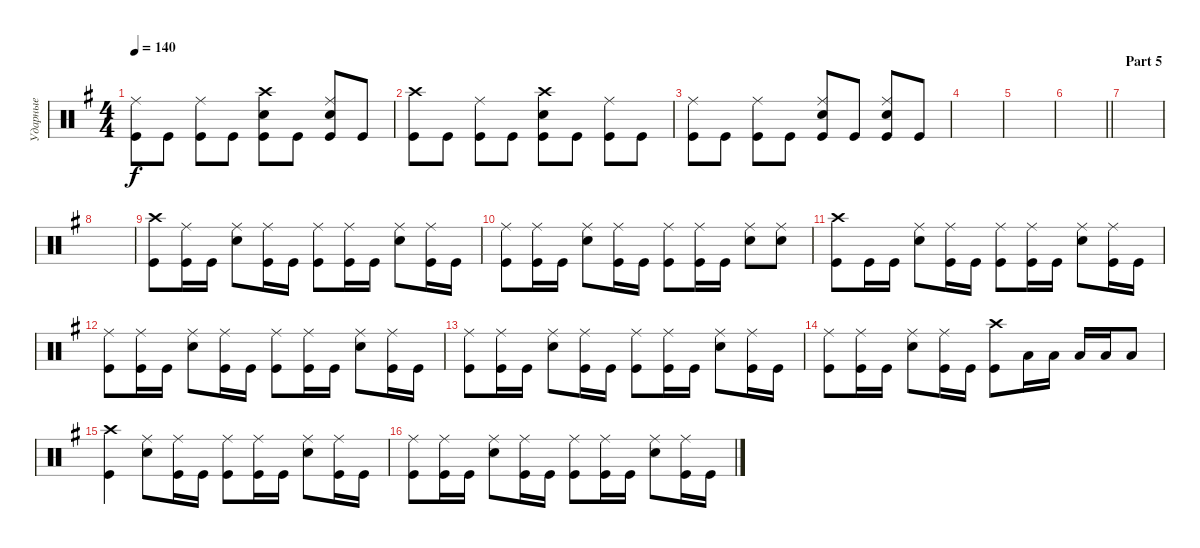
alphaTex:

\track ("Ударные" "Ударные") {instrument percussion}
\staff {score}
\articulation defaults
\ts (4 4)
\tempo 140
\clef neutral
\ks eminor
("Kick (hit)" "Ride (middle)").8{dy f} "Kick (hit)".8 ("Kick (hit)" "Ride (middle)").8 "Kick (hit)".8 ("Kick (hit)" "Snare (hit) 2" "Crash high (hit)").8 "Kick (hit)".8 ("Kick (hit)" "Ride (middle)" "Snare (hit) 2").8 "Kick (hit)".8 |
("Kick (hit)" "Crash high (hit)").8 "Kick (hit)".8 ("Kick (hit)" "Ride (middle)").8 "Kick (hit)".8 ("Kick (hit)" "Snare (hit) 2" "Crash high (hit)").8 "Kick (hit)".8 ("Kick (hit)" "Ride (middle)").8 "Kick (hit)".8 |
("Kick (hit)" "Ride (middle)").8 "Kick (hit)".8 ("Kick (hit)" "Ride (middle)").8 "Kick (hit)".8 ("Kick (hit)" "Snare (hit) 2" "Ride (middle)").8 "Kick (hit)".8 ("Kick (hit)" "Ride (middle)" "Snare (hit) 2").8 "Kick (hit)".8 |
|
|
\barLineRight lightlight
|
\section ("" "Part 5")
|
|
("Kick (hit)" "Crash high (hit)").8 ("Kick (hit)" "Ride (middle)").16 "Kick (hit)".16 ("Snare (hit) 2" "Ride (middle)").8 ("Kick (hit)" "Ride (middle)").16 "Kick (hit)".16 ("Kick (hit)" "Ride (middle)").8 ("Kick (hit)" "Ride (middle)").16 "Kick (hit)".16 ("Snare (hit) 2" "Ride (middle)").8 ("Kick (hit)" "Ride (middle)").16 "Kick (hit)".16 |
("Kick (hit)" "Ride (middle)").8 ("Kick (hit)" "Ride (middle)").16 "Kick (hit)".16 ("Snare (hit) 2" "Ride (middle)").8 ("Kick (hit)" "Ride (middle)").16 "Kick (hit)".16 ("Kick (hit)" "Ride (middle)").8 ("Kick (hit)" "Ride (middle)").16 "Kick (hit)".16 ("Snare (hit) 2" "Ride (middle)").8 ("Snare (hit) 2" "Ride (middle)").8 |
("Kick (hit)" "Crash high (hit)").8 "Kick (hit)".16 "Kick (hit)".16 ("Snare (hit) 2" "Ride (middle)").8 ("Kick (hit)" "Ride (middle)").16 "Kick (hit)".16 ("Kick (hit)" "Ride (middle)").8 ("Kick (hit)" "Ride (middle)").16 "Kick (hit)".16 ("Snare (hit) 2" "Ride (middle)").8 ("Kick (hit)" "Ride (middle)").16 "Kick (hit)".16 |
("Kick (hit)" "Ride (middle)").8 ("Kick (hit)" "Ride (middle)").16 "Kick (hit)".16 ("Snare (hit) 2" "Ride (middle)").8 ("Kick (hit)" "Ride (middle)").16 "Kick (hit)".16 ("Kick (hit)" "Ride (middle)").8 ("Kick (hit)" "Ride (middle)").16 "Kick (hit)".16 ("Snare (hit) 2" "Ride (middle)").8 ("Kick (hit)" "Ride (middle)").16 "Kick (hit)".16 |
("Kick (hit)" "Ride (middle)").8 ("Kick (hit)" "Ride (middle)").16 "Kick (hit)".16 ("Snare (hit) 2" "Ride (middle)").8 ("Kick (hit)" "Ride (middle)").16 "Kick (hit)".16 ("Kick (hit)" "Ride (middle)").8 ("Kick (hit)" "Ride (middle)").16 "Kick (hit)".16 ("Snare (hit) 2" "Ride (middle)").8 ("Kick (hit)" "Ride (middle)").16 "Kick (hit)".16 |
("Kick (hit)" "Ride (middle)").8 ("Kick (hit)" "Ride (middle)").16 "Kick (hit)".16 ("Snare (hit) 2" "Ride (middle)").8 ("Kick (hit)" "Ride (middle)").16 "Kick (hit)".16 ("Kick (hit)" "Crash high (hit)").8 "Low Tom (hit)".16 "Low Tom (hit)".16 "Low Tom (hit)".16 "Low Tom (hit)".16 "Low Tom (hit)".8 |
("Kick (hit)" "Crash high (hit)").4 ("Snare (hit) 2" "Ride (middle)").8 ("Kick (hit)" "Ride (middle)").16 "Kick (hit)".16 ("Kick (hit)" "Ride (middle)").8 ("Kick (hit)" "Ride (middle)").16 "Kick (hit)".16 ("Snare (hit) 2" "Ride (middle)").8 ("Kick (hit)" "Ride (middle)").16 "Kick (hit)".16 |
("Kick (hit)" "Ride (middle)").8 ("Kick (hit)" "Ride (middle)").16 "Kick (hit)".16 ("Snare (hit) 2" "Ride (middle)").8 ("Kick (hit)" "Ride (middle)").16 "Kick (hit)".16 ("Kick (hit)" "Ride (middle)").8 ("Kick (hit)" "Ride (middle)").16 "Kick (hit)".16 ("Snare (hit) 2" "Ride (middle)").8 ("Kick (hit)" "Ride (middle)").16 "Kick (hit)".16
